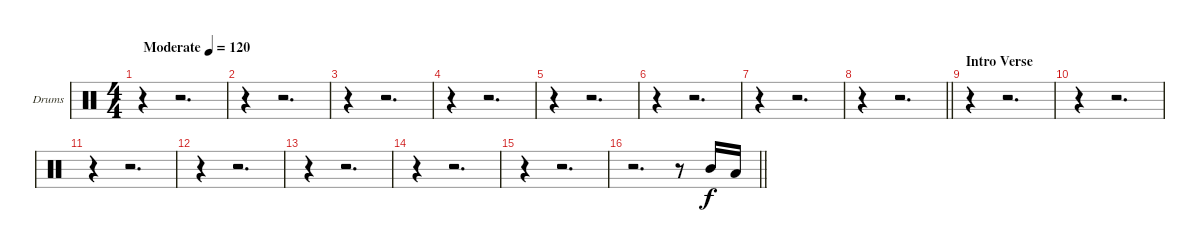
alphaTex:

\bracketExtendMode groupsimilarinstruments
\firstSystemTrackNameOrientation horizontal
\otherSystemsTrackNameOrientation horizontal
\track ("Drumkit" "Drums") {instrument percussion}
\staff {score}
\articulation defaults
\ts (4 4)
\beaming (8 2 2 2 2)
\tempo (120 "Moderate")
\clef neutral
\ks c
r.4{dy f} r.2{d} |
r.4 r.2{d} |
r.4 r.2{d} |
r.4 r.2{d} |
r.4 r.2{d} |
r.4 r.2{d} |
r.4 r.2{d} |
\barLineRight lightlight
r.4 r.2{d} |
\section ("" "Intro Verse")
r.4 r.2{d} |
r.4 r.2{d} |
r.4 r.2{d} |
r.4 r.2{d} |
r.4 r.2{d} |
r.4 r.2{d} |
r.4 r.2{d} |
\barLineRight lightlight
r.2{d} r.8 "Mid Tom (hit)".16 "Low Tom (hit)".16
